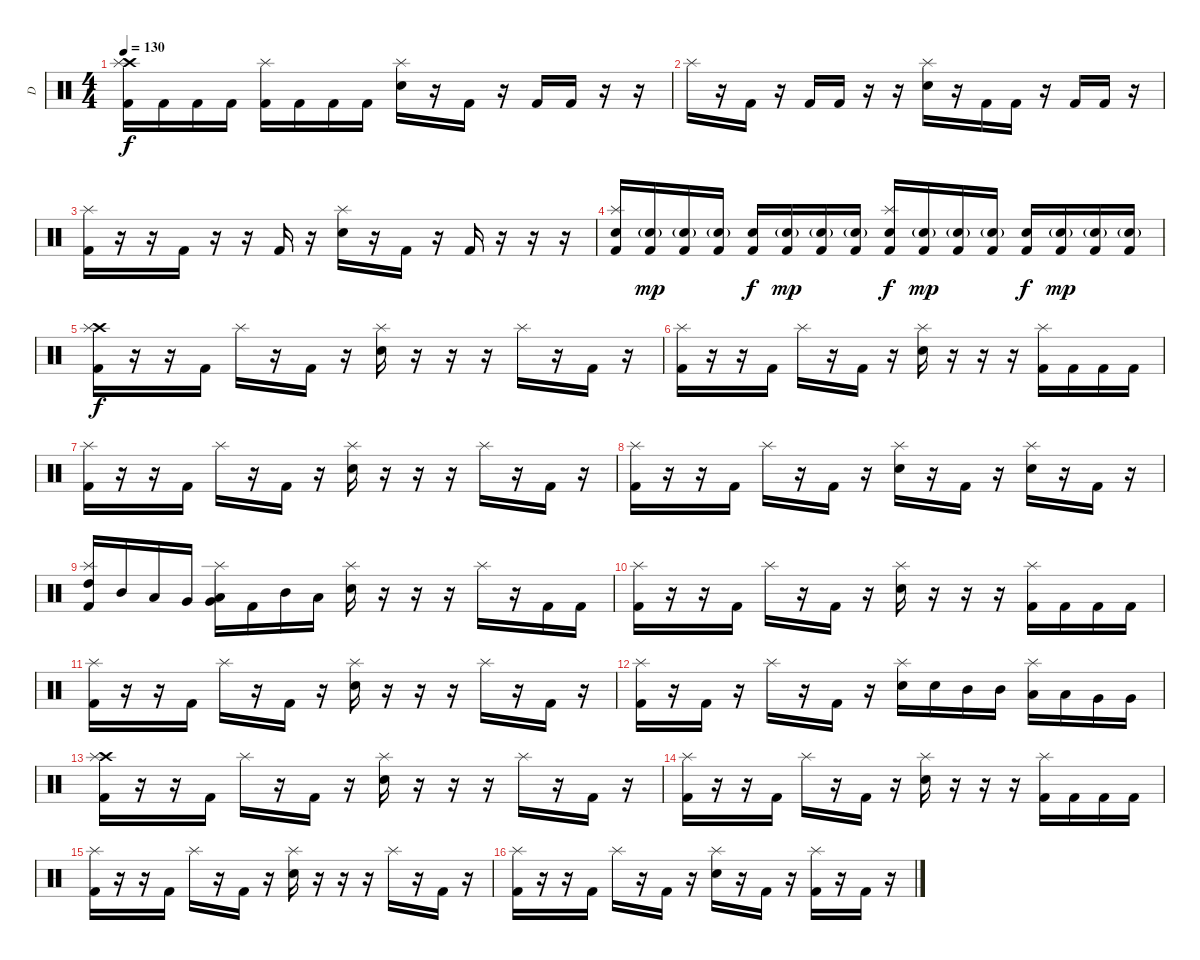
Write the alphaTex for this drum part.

\track ("D" "D") {instrument percussion}
\staff {score}
\articulation defaults
\ts (4 4)
\tempo 130
\clef neutral
\ks c
("Crash high (hit)" "Kick (hit) 2" "Splash (hit)").16{dy f} "Kick (hit) 2".16 "Kick (hit) 2".16 "Kick (hit) 2".16 ("Kick (hit) 2" "Splash (hit)").16 "Kick (hit) 2".16 "Kick (hit) 2".16 "Kick (hit) 2".16 ("Electric Snare (hit)" "Splash (hit)").16 r.16 "Kick (hit) 2".16 r.16 "Kick (hit) 2".16 "Kick (hit) 2".16 r.16 r.16 |
"Splash (hit)".16 r.16 "Kick (hit) 2".16 r.16 "Kick (hit) 2".16 "Kick (hit) 2".16 r.16 r.16 ("Electric Snare (hit)" "Splash (hit)").16 r.16 "Kick (hit) 2".16 "Kick (hit) 2".16 r.16 "Kick (hit) 2".16 "Kick (hit) 2".16 r.16 |
("Kick (hit) 2" "Splash (hit)").16 r.16 r.16 "Kick (hit) 2".16 r.16 r.16 "Kick (hit) 2".16 r.16 ("Electric Snare (hit)" "Splash (hit)").16 r.16 "Kick (hit) 2".16 r.16 "Kick (hit) 2".16 r.16 r.16 r.16 |
("Electric Snare (hit)" "Kick (hit) 2" "Splash (hit)").16 ("Electric Snare (hit)"{g} "Kick (hit) 2").16{dy mp} ("Electric Snare (hit)"{g} "Kick (hit) 2").16 ("Electric Snare (hit)"{g} "Kick (hit) 2").16 ("Electric Snare (hit)" "Kick (hit) 2").16{dy f} ("Electric Snare (hit)"{g} "Kick (hit) 2").16{dy mp} ("Electric Snare (hit)"{g} "Kick (hit) 2").16 ("Electric Snare (hit)"{g} "Kick (hit) 2").16 ("Electric Snare (hit)" "Kick (hit) 2" "Splash (hit)").16{dy f} ("Electric Snare (hit)"{g} "Kick (hit) 2").16{dy mp} ("Electric Snare (hit)"{g} "Kick (hit) 2").16 ("Electric Snare (hit)"{g} "Kick (hit) 2").16 ("Electric Snare (hit)" "Kick (hit) 2").16{dy f} ("Electric Snare (hit)"{g} "Kick (hit) 2").16{dy mp} ("Electric Snare (hit)"{g} "Kick (hit) 2").16 ("Electric Snare (hit)"{g} "Kick (hit) 2").16 |
("Crash high (hit)" "Kick (hit) 2" "Splash (hit)").16{dy f} r.16 r.16 "Kick (hit) 2".16 "Splash (hit)".16 r.16 "Kick (hit) 2".16 r.16 ("Electric Snare (hit)" "Splash (hit)").16 r.16 r.16 r.16 "Splash (hit)".16 r.16 "Kick (hit) 2".16 r.16 |
("Kick (hit) 2" "Splash (hit)").16 r.16 r.16 "Kick (hit) 2".16 "Splash (hit)".16 r.16 "Kick (hit) 2".16 r.16 ("Electric Snare (hit)" "Splash (hit)").16 r.16 r.16 r.16 ("Kick (hit) 2" "Splash (hit)").16 "Kick (hit) 2".16 "Kick (hit) 2".16 "Kick (hit) 2".16 |
("Kick (hit) 2" "Splash (hit)").16 r.16 r.16 "Kick (hit) 2".16 "Splash (hit)".16 r.16 "Kick (hit) 2".16 r.16 ("Electric Snare (hit)" "Splash (hit)").16 r.16 r.16 r.16 "Splash (hit)".16 r.16 "Kick (hit) 2".16 r.16 |
("Kick (hit) 2" "Splash (hit)").16 r.16 r.16 "Kick (hit) 2".16 "Splash (hit)".16 r.16 "Kick (hit) 2".16 r.16 ("Electric Snare (hit)" "Splash (hit)").16 r.16 "Kick (hit) 2".16 r.16 ("Electric Snare (hit)" "Splash (hit)").16 r.16 "Kick (hit) 2".16 r.16 |
("High Tom (hit)" "Kick (hit) 2" "Splash (hit)").16 "Mid Tom (hit)".16 "Low Tom (hit)".16 "Very Low Tom (hit)".16 ("Low Tom (hit)" "Very Low Tom (hit)" "Splash (hit)").16 "Kick (hit) 2".16 "Mid Tom (hit)".16 "Low Tom (hit)".16 ("Electric Snare (hit)" "Splash (hit)").16 r.16 r.16 r.16 "Splash (hit)".16 r.16 "Kick (hit) 2".16 "Kick (hit) 2".16 |
("Kick (hit) 2" "Splash (hit)").16 r.16 r.16 "Kick (hit) 2".16 "Splash (hit)".16 r.16 "Kick (hit) 2".16 r.16 ("Electric Snare (hit)" "Splash (hit)").16 r.16 r.16 r.16 ("Kick (hit) 2" "Splash (hit)").16 "Kick (hit) 2".16 "Kick (hit) 2".16 "Kick (hit) 2".16 |
("Kick (hit) 2" "Splash (hit)").16 r.16 r.16 "Kick (hit) 2".16 "Splash (hit)".16 r.16 "Kick (hit) 2".16 r.16 ("Electric Snare (hit)" "Splash (hit)").16 r.16 r.16 r.16 "Splash (hit)".16 r.16 "Kick (hit) 2".16 r.16 |
("Kick (hit) 2" "Splash (hit)").16 r.16 "Kick (hit) 2".16 r.16 "Splash (hit)".16 r.16 "Kick (hit) 2".16 r.16 ("Electric Snare (hit)" "Splash (hit)").16 "Electric Snare (hit)".16 "Mid Tom (hit)".16 "Mid Tom (hit)".16 ("Low Tom (hit)" "Splash (hit)").16 "Low Tom (hit)".16 "Very Low Tom (hit)".16 "Very Low Tom (hit)".16 |
("Crash high (hit)" "Kick (hit) 2" "Splash (hit)").16 r.16 r.16 "Kick (hit) 2".16 "Splash (hit)".16 r.16 "Kick (hit) 2".16 r.16 ("Electric Snare (hit)" "Splash (hit)").16 r.16 r.16 r.16 "Splash (hit)".16 r.16 "Kick (hit) 2".16 r.16 |
("Kick (hit) 2" "Splash (hit)").16 r.16 r.16 "Kick (hit) 2".16 "Splash (hit)".16 r.16 "Kick (hit) 2".16 r.16 ("Electric Snare (hit)" "Splash (hit)").16 r.16 r.16 r.16 ("Kick (hit) 2" "Splash (hit)").16 "Kick (hit) 2".16 "Kick (hit) 2".16 "Kick (hit) 2".16 |
("Kick (hit) 2" "Splash (hit)").16 r.16 r.16 "Kick (hit) 2".16 "Splash (hit)".16 r.16 "Kick (hit) 2".16 r.16 ("Electric Snare (hit)" "Splash (hit)").16 r.16 r.16 r.16 "Splash (hit)".16 r.16 "Kick (hit) 2".16 r.16 |
("Kick (hit) 2" "Splash (hit)").16 r.16 r.16 "Kick (hit) 2".16 "Splash (hit)".16 r.16 "Kick (hit) 2".16 r.16 ("Electric Snare (hit)" "Splash (hit)").16 r.16 "Kick (hit) 2".16 r.16 ("Kick (hit) 2" "Splash (hit)").16 r.16 "Kick (hit) 2".16 r.16
